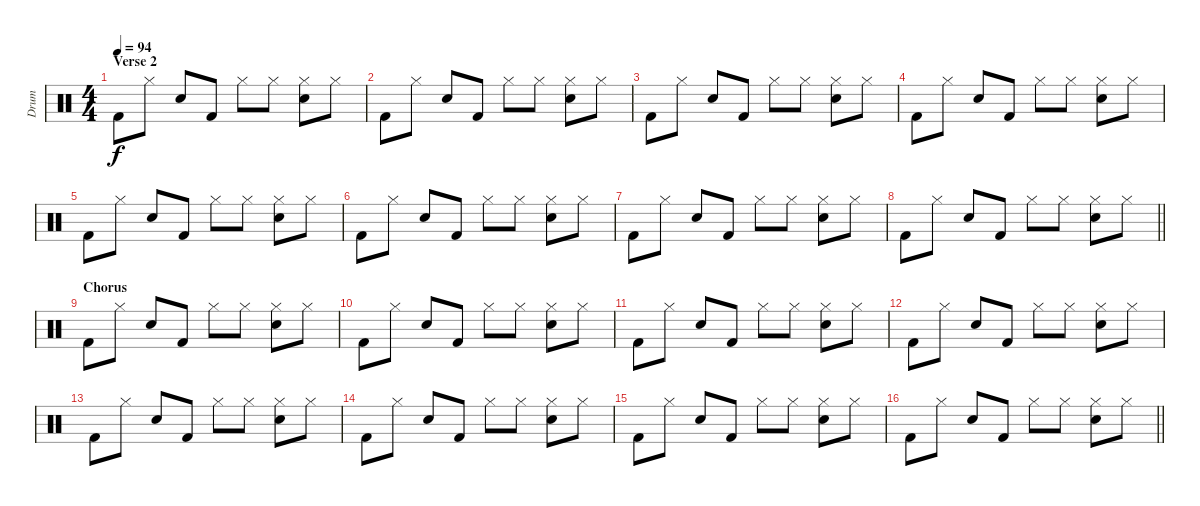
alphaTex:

\track ("Drum" "Drum") {instrument percussion}
\staff {score}
\articulation defaults
\ts (4 4)
\section ("" "Verse 2")
\tempo 94
\clef neutral
\ks c "Kick (hit) 2".8{dy f} "Hi-Hat (closed)".8 "Electric Snare (hit)".8 "Kick (hit) 2".8 "Hi-Hat (closed)".8 "Hi-Hat (closed)".8
("Hi-Hat (closed)" "Electric Snare (hit)").8 "Hi-Hat (closed)".8 |
"Kick (hit) 2".8 "Hi-Hat (closed)".8 "Electric Snare (hit)".8 "Kick (hit) 2".8 "Hi-Hat (closed)".8 "Hi-Hat (closed)".8 ("Hi-Hat (closed)" "Electric Snare (hit)").8 "Hi-Hat (closed)".8 |
"Kick (hit) 2".8 "Hi-Hat (closed)".8 "Electric Snare (hit)".8 "Kick (hit) 2".8 "Hi-Hat (closed)".8 "Hi-Hat (closed)".8 ("Hi-Hat (closed)" "Electric Snare (hit)").8 "Hi-Hat (closed)".8 |
"Kick (hit) 2".8 "Hi-Hat (closed)".8 "Electric Snare (hit)".8 "Kick (hit) 2".8 "Hi-Hat (closed)".8 "Hi-Hat (closed)".8 ("Hi-Hat (closed)" "Electric Snare (hit)").8 "Hi-Hat (closed)".8 |
"Kick (hit) 2".8 "Hi-Hat (closed)".8 "Electric Snare (hit)".8 "Kick (hit) 2".8 "Hi-Hat (closed)".8 "Hi-Hat (closed)".8 ("Hi-Hat (closed)" "Electric Snare (hit)").8 "Hi-Hat (closed)".8 |
"Kick (hit) 2".8 "Hi-Hat (closed)".8 "Electric Snare (hit)".8 "Kick (hit) 2".8 "Hi-Hat (closed)".8 "Hi-Hat (closed)".8 ("Hi-Hat (closed)" "Electric Snare (hit)").8 "Hi-Hat (closed)".8 |
"Kick (hit) 2".8 "Hi-Hat (closed)".8 "Electric Snare (hit)".8 "Kick (hit) 2".8 "Hi-Hat (closed)".8 "Hi-Hat (closed)".8 ("Hi-Hat (closed)" "Electric Snare (hit)").8 "Hi-Hat (closed)".8 |
\barLineRight lightlight "Kick (hit) 2".8 "Hi-Hat (closed)".8 "Electric Snare (hit)".8 "Kick (hit) 2".8 "Hi-Hat (closed)".8 "Hi-Hat (closed)".8
("Hi-Hat (closed)" "Electric Snare (hit)").8 "Hi-Hat (closed)".8 |
\section ("" "Chorus")
"Kick (hit) 2".8 "Hi-Hat (closed)".8 "Electric Snare (hit)".8 "Kick (hit) 2".8 "Hi-Hat (closed)".8 "Hi-Hat (closed)".8 ("Hi-Hat (closed)" "Electric Snare (hit)").8 "Hi-Hat (closed)".8 |
"Kick (hit) 2".8 "Hi-Hat (closed)".8 "Electric Snare (hit)".8 "Kick (hit) 2".8 "Hi-Hat (closed)".8 "Hi-Hat (closed)".8 ("Hi-Hat (closed)" "Electric Snare (hit)").8 "Hi-Hat (closed)".8 |
"Kick (hit) 2".8 "Hi-Hat (closed)".8 "Electric Snare (hit)".8 "Kick (hit) 2".8 "Hi-Hat (closed)".8 "Hi-Hat (closed)".8 ("Hi-Hat (closed)" "Electric Snare (hit)").8 "Hi-Hat (closed)".8 |
"Kick (hit) 2".8 "Hi-Hat (closed)".8 "Electric Snare (hit)".8 "Kick (hit) 2".8 "Hi-Hat (closed)".8 "Hi-Hat (closed)".8 ("Hi-Hat (closed)" "Electric Snare (hit)").8 "Hi-Hat (closed)".8 |
"Kick (hit) 2".8 "Hi-Hat (closed)".8 "Electric Snare (hit)".8 "Kick (hit) 2".8 "Hi-Hat (closed)".8 "Hi-Hat (closed)".8 ("Hi-Hat (closed)" "Electric Snare (hit)").8 "Hi-Hat (closed)".8 |
"Kick (hit) 2".8 "Hi-Hat (closed)".8 "Electric Snare (hit)".8 "Kick (hit) 2".8 "Hi-Hat (closed)".8 "Hi-Hat (closed)".8 ("Hi-Hat (closed)" "Electric Snare (hit)").8 "Hi-Hat (closed)".8 |
"Kick (hit) 2".8 "Hi-Hat (closed)".8 "Electric Snare (hit)".8 "Kick (hit) 2".8 "Hi-Hat (closed)".8 "Hi-Hat (closed)".8 ("Hi-Hat (closed)" "Electric Snare (hit)").8 "Hi-Hat (closed)".8 |
\barLineRight lightlight "Kick (hit) 2".8 "Hi-Hat (closed)".8 "Electric Snare (hit)".8 "Kick (hit) 2".8 "Hi-Hat (closed)".8 "Hi-Hat (closed)".8
("Hi-Hat (closed)" "Electric Snare (hit)").8 "Hi-Hat (closed)".8
